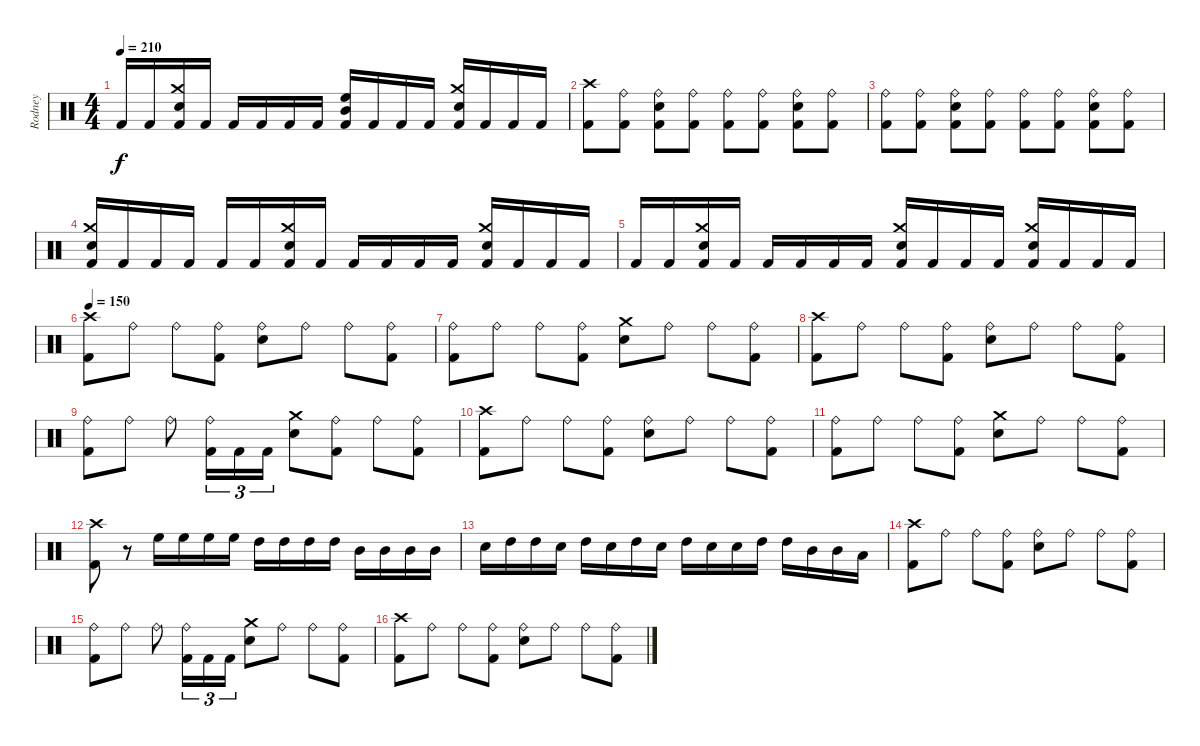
\track ("Rodney" "Rodney") {instrument percussion}
\staff {score}
\articulation defaults
\ts (4 4)
\tempo 210
\clef neutral
\ks c "Kick (hit) 2".16{dy f} "Kick (hit) 2".16
("Crash medium (hit)" "Snare (hit) 2" "Kick (hit) 2").16 "Kick (hit) 2".16 "Kick (hit) 2".16 "Kick (hit) 2".16 "Kick (hit) 2".16 "Kick (hit) 2".16 ("High Floor Tom (hit)" "Mid Tom (hit)" "Kick (hit) 2").16 "Kick (hit) 2".16 "Kick (hit) 2".16 "Kick (hit) 2".16 ("Crash medium (hit)" "Snare (hit) 2" "Kick (hit) 2").16 "Kick (hit) 2".16 "Kick (hit) 2".16 "Kick (hit) 2".16 |
("Crash high (hit)" "Kick (hit) 2").8 ("Ride (bell)" "Kick (hit) 2").8 ("Ride (bell)" "Snare (hit) 2" "Kick (hit) 2").8 ("Ride (bell)" "Kick (hit) 2").8 ("Ride (bell)" "Kick (hit) 2").8 ("Ride (bell)" "Kick (hit) 2").8 ("Ride (bell)" "Snare (hit) 2" "Kick (hit) 2").8 ("Ride (bell)" "Kick (hit) 2").8 |
("Ride (bell)" "Kick (hit) 2").8 ("Ride (bell)" "Kick (hit) 2").8 ("Ride (bell)" "Snare (hit) 2" "Kick (hit) 2").8 ("Ride (bell)" "Kick (hit) 2").8 ("Ride (bell)" "Kick (hit) 2").8 ("Ride (bell)" "Kick (hit) 2").8 ("Ride (bell)" "Snare (hit) 2" "Kick (hit) 2").8 ("Ride (bell)" "Kick (hit) 2").8 |
("Crash medium (hit)" "Snare (hit) 2" "Kick (hit) 2").16 "Kick (hit) 2".16 "Kick (hit) 2".16 "Kick (hit) 2".16 "Kick (hit) 2".16 "Kick (hit) 2".16 ("Crash medium (hit)" "Snare (hit) 2" "Kick (hit) 2").16 "Kick (hit) 2".16 "Kick (hit) 2".16 "Kick (hit) 2".16 "Kick (hit) 2".16 "Kick (hit) 2".16 ("Crash medium (hit)" "Snare (hit) 2" "Kick (hit) 2").16 "Kick (hit) 2".16 "Kick (hit) 2".16 "Kick (hit) 2".16 |
"Kick (hit) 2".16 "Kick (hit) 2".16 ("Crash medium (hit)" "Snare (hit) 2" "Kick (hit) 2").16 "Kick (hit) 2".16 "Kick (hit) 2".16 "Kick (hit) 2".16 "Kick (hit) 2".16 "Kick (hit) 2".16 ("Crash medium (hit)" "Snare (hit) 2" "Kick (hit) 2").16 "Kick (hit) 2".16 "Kick (hit) 2".16 "Kick (hit) 2".16 ("Crash medium (hit)" "Snare (hit) 2" "Kick (hit) 2").16 "Kick (hit) 2".16 "Kick (hit) 2".16 "Kick (hit) 2".16 |
\tempo 150
("Crash high (hit)" "Kick (hit) 2").8 "Ride (bell)".8 "Ride (bell)".8 ("Ride (bell)" "Kick (hit) 2").8 ("Ride (bell)" "Snare (hit) 2").8 "Ride (bell)".8 "Ride (bell)".8 ("Ride (bell)" "Kick (hit) 2").8 |
("Ride (bell)" "Kick (hit) 2").8 "Ride (bell)".8 "Ride (bell)".8 ("Ride (bell)" "Kick (hit) 2").8 ("Crash medium (hit)" "Snare (hit) 2").8 "Ride (bell)".8 "Ride (bell)".8 ("Ride (bell)" "Kick (hit) 2").8 |
("Crash high (hit)" "Kick (hit) 2").8 "Ride (bell)".8 "Ride (bell)".8 ("Ride (bell)" "Kick (hit) 2").8 ("Ride (bell)" "Snare (hit) 2").8 "Ride (bell)".8 "Ride (bell)".8 ("Ride (bell)" "Kick (hit) 2").8 |
("Ride (bell)" "Kick (hit) 2").8 "Ride (bell)".8 "Ride (bell)".8 ("Ride (bell)" "Kick (hit) 2").16{tu (3 2)} "Kick (hit) 2".16{tu (3 2)} "Kick (hit) 2".16{tu (3 2)} ("Crash medium (hit)" "Snare (hit) 2").8 ("Ride (bell)" "Kick (hit) 2").8 "Ride (bell)".8 ("Ride (bell)" "Kick (hit) 2").8 |
("Crash high (hit)" "Kick (hit) 2").8 "Ride (bell)".8 "Ride (bell)".8 ("Ride (bell)" "Kick (hit) 2").8 ("Ride (bell)" "Snare (hit) 2").8 "Ride (bell)".8 "Ride (bell)".8 ("Ride (bell)" "Kick (hit) 2").8 |
("Ride (bell)" "Kick (hit) 2").8 "Ride (bell)".8 "Ride (bell)".8 ("Ride (bell)" "Kick (hit) 2").8 ("Crash medium (hit)" "Snare (hit) 2").8 "Ride (bell)".8 "Ride (bell)".8 ("Ride (bell)" "Kick (hit) 2").8 |
("Crash high (hit)" "Kick (hit) 2").8 r.8 "High Floor Tom (hit)".16 "High Floor Tom (hit)".16 "High Floor Tom (hit)".16 "High Floor Tom (hit)".16 "High Tom (hit)".16 "High Tom (hit)".16 "High Tom (hit)".16 "High Tom (hit)".16 "Mid Tom (hit)".16 "Mid Tom (hit)".16 "Mid Tom (hit)".16 "Mid Tom (hit)".16 |
"Snare (hit) 2".16 "High Tom (hit)".16 "High Tom (hit)".16 "Snare (hit) 2".16 "High Tom (hit)".16 "Snare (hit) 2".16 "High Tom (hit)".16 "Snare (hit) 2".16 "High Tom (hit)".16 "Snare (hit) 2".16 "Snare (hit) 2".16 "High Tom (hit)".16 "High Tom (hit)".16 "Mid Tom (hit)".16 "Mid Tom (hit)".16 "Low Tom (hit)".16 |
("Crash high (hit)" "Kick (hit) 2").8 "Ride (bell)".8 "Ride (bell)".8 ("Ride (bell)" "Kick (hit) 2").8 ("Ride (bell)" "Snare (hit) 2").8 "Ride (bell)".8 "Ride (bell)".8 ("Ride (bell)" "Kick (hit) 2").8 |
("Ride (bell)" "Kick (hit) 2").8 "Ride (bell)".8 "Ride (bell)".8 ("Ride (bell)" "Kick (hit) 2").16{tu (3 2)} "Kick (hit) 2".16{tu (3 2)} "Kick (hit) 2".16{tu (3 2)} ("Crash medium (hit)" "Snare (hit) 2").8 "Ride (bell)".8 "Ride (bell)".8 ("Ride (bell)" "Kick (hit) 2").8 |
("Crash high (hit)" "Kick (hit) 2").8 "Ride (bell)".8 "Ride (bell)".8 ("Ride (bell)" "Kick (hit) 2").8 ("Ride (bell)" "Snare (hit) 2").8 "Ride (bell)".8 "Ride (bell)".8 ("Ride (bell)" "Kick (hit) 2").8
